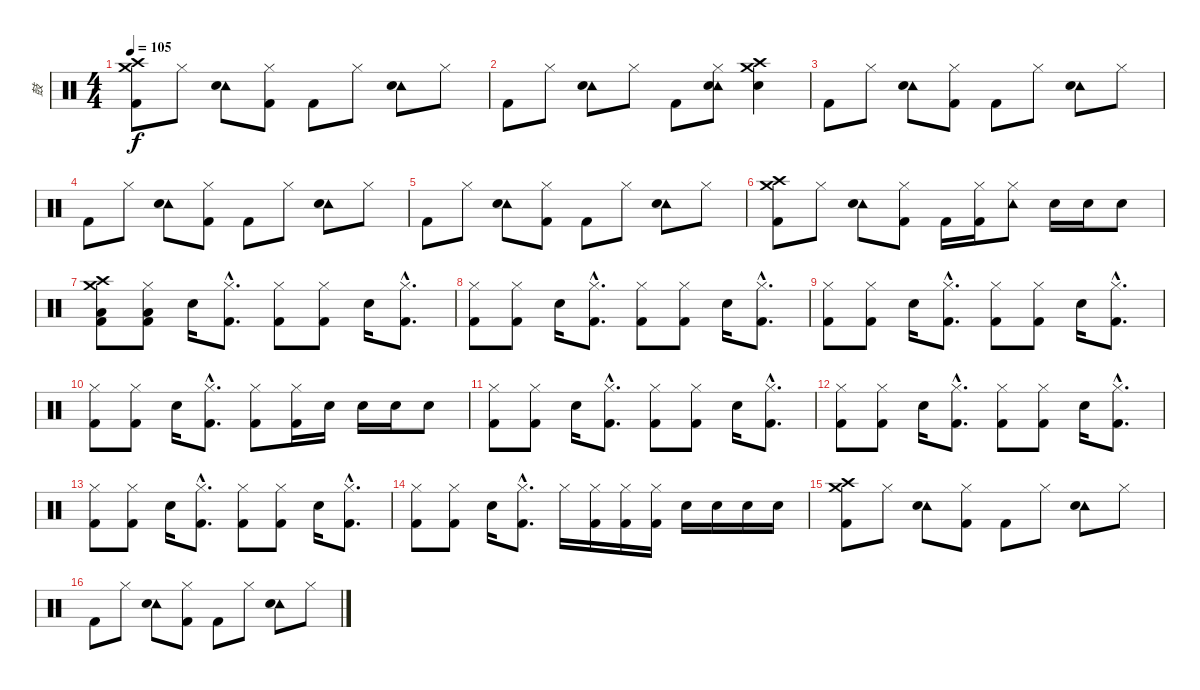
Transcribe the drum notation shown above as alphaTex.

\track ("鼓" "鼓") {instrument percussion}
\staff {score}
\articulation defaults
\ts (4 4)
\tempo 105
\clef neutral
\ks c
("Crash high (hit)" "Crash medium (hit)" "Kick (hit) 2").8{dy f} "Hi-Hat (closed)".8 ("Tambourine (hit)" "Electric Snare (hit)").8 ("Hi-Hat (closed)" "Kick (hit) 2").8 "Kick (hit) 2".8 "Hi-Hat (closed)".8 ("Tambourine (hit)" "Electric Snare (hit)").8 "Hi-Hat (closed)".8 |
"Kick (hit) 2".8 "Hi-Hat (closed)".8 ("Tambourine (hit)" "Electric Snare (hit)").8 "Hi-Hat (closed)".8 "Kick (hit) 2".8 ("Hi-Hat (closed)" "Tambourine (hit)" "Electric Snare (hit)").8 ("Crash medium (hit)" "Crash high (hit)" "Electric Snare (hit)").4 |
"Kick (hit) 2".8 "Hi-Hat (closed)".8 ("Tambourine (hit)" "Electric Snare (hit)").8 ("Hi-Hat (closed)" "Kick (hit) 2").8 "Kick (hit) 2".8 "Hi-Hat (closed)".8 ("Tambourine (hit)" "Electric Snare (hit)").8 "Hi-Hat (closed)".8 |
"Kick (hit) 2".8 "Hi-Hat (closed)".8 ("Tambourine (hit)" "Electric Snare (hit)").8 ("Hi-Hat (closed)" "Kick (hit) 2").8 "Kick (hit) 2".8 "Hi-Hat (closed)".8 ("Tambourine (hit)" "Electric Snare (hit)").8 "Hi-Hat (closed)".8 |
"Kick (hit) 2".8 "Hi-Hat (closed)".8 ("Tambourine (hit)" "Electric Snare (hit)").8 ("Hi-Hat (closed)" "Kick (hit) 2").8 "Kick (hit) 2".8 "Hi-Hat (closed)".8 ("Tambourine (hit)" "Electric Snare (hit)").8 "Hi-Hat (closed)".8 |
("Crash high (hit)" "Crash medium (hit)" "Kick (hit) 2").8 "Hi-Hat (closed)".8 ("Tambourine (hit)" "Electric Snare (hit)").8 ("Hi-Hat (closed)" "Kick (hit) 2").8 "Kick (hit) 2".16 ("Hi-Hat (closed)" "Kick (hit) 2").16 ("Hi-Hat (closed)" "Tambourine (hit)").8 "Electric Snare (hit)".16 "Electric Snare (hit)".16 "Electric Snare (hit)".8 |
("Crash high (hit)" "Crash medium (hit)" "Low Floor Tom (hit)" "Kick (hit) 2").8 ("Hi-Hat (closed)" "Low Floor Tom (hit)" "Kick (hit) 2").8 "Electric Snare (hit)".16 ("Hi-Hat (closed)"{hac} "Kick (hit) 2"{hac}).8{d} ("Hi-Hat (closed)" "Kick (hit) 2").8 ("Hi-Hat (closed)" "Kick (hit) 2").8 "Electric Snare (hit)".16 ("Hi-Hat (closed)"{hac} "Kick (hit) 2"{hac}).8{d} |
("Hi-Hat (closed)" "Kick (hit) 2").8 ("Hi-Hat (closed)" "Kick (hit) 2").8 "Electric Snare (hit)".16 ("Hi-Hat (closed)"{hac} "Kick (hit) 2"{hac}).8{d} ("Hi-Hat (closed)" "Kick (hit) 2").8 ("Hi-Hat (closed)" "Kick (hit) 2").8 "Electric Snare (hit)".16 ("Hi-Hat (closed)"{hac} "Kick (hit) 2"{hac}).8{d} |
("Hi-Hat (closed)" "Kick (hit) 2").8 ("Hi-Hat (closed)" "Kick (hit) 2").8 "Electric Snare (hit)".16 ("Hi-Hat (closed)"{hac} "Kick (hit) 2"{hac}).8{d} ("Hi-Hat (closed)" "Kick (hit) 2").8 ("Hi-Hat (closed)" "Kick (hit) 2").8 "Electric Snare (hit)".16 ("Hi-Hat (closed)"{hac} "Kick (hit) 2"{hac}).8{d} |
("Hi-Hat (closed)" "Kick (hit) 2").8 ("Hi-Hat (closed)" "Kick (hit) 2").8 "Electric Snare (hit)".16 ("Hi-Hat (closed)"{hac} "Kick (hit) 2"{hac}).8{d} ("Hi-Hat (closed)" "Kick (hit) 2").8 ("Hi-Hat (closed)" "Kick (hit) 2").16 "Electric Snare (hit)".16 "Electric Snare (hit)".16 "Electric Snare (hit)".16 "Electric Snare (hit)".8 |
\section ("" "")
("Hi-Hat (closed)" "Kick (hit) 2").8 ("Hi-Hat (closed)" "Kick (hit) 2").8 "Electric Snare (hit)".16 ("Hi-Hat (closed)"{hac} "Kick (hit) 2"{hac}).8{d} ("Hi-Hat (closed)" "Kick (hit) 2").8 ("Hi-Hat (closed)" "Kick (hit) 2").8 "Electric Snare (hit)".16 ("Hi-Hat (closed)"{hac} "Kick (hit) 2"{hac}).8{d} |
("Hi-Hat (closed)" "Kick (hit) 2").8 ("Hi-Hat (closed)" "Kick (hit) 2").8 "Electric Snare (hit)".16 ("Hi-Hat (closed)"{hac} "Kick (hit) 2"{hac}).8{d} ("Hi-Hat (closed)" "Kick (hit) 2").8 ("Hi-Hat (closed)" "Kick (hit) 2").8 "Electric Snare (hit)".16 ("Hi-Hat (closed)"{hac} "Kick (hit) 2"{hac}).8{d} |
("Hi-Hat (closed)" "Kick (hit) 2").8 ("Hi-Hat (closed)" "Kick (hit) 2").8 "Electric Snare (hit)".16 ("Hi-Hat (closed)"{hac} "Kick (hit) 2"{hac}).8{d} ("Hi-Hat (closed)" "Kick (hit) 2").8 ("Hi-Hat (closed)" "Kick (hit) 2").8 "Electric Snare (hit)".16 ("Hi-Hat (closed)"{hac} "Kick (hit) 2"{hac}).8{d} |
("Hi-Hat (closed)" "Kick (hit) 2").8 ("Hi-Hat (closed)" "Kick (hit) 2").8 "Electric Snare (hit)".16 ("Hi-Hat (closed)"{hac} "Kick (hit) 2"{hac}).8{d} "Hi-Hat (closed)".16 ("Hi-Hat (closed)" "Kick (hit) 2").16 ("Hi-Hat (closed)" "Kick (hit) 2").16 ("Hi-Hat (closed)" "Kick (hit) 2").16 "Electric Snare (hit)".16 "Electric Snare (hit)".16 "Electric Snare (hit)".16 "Electric Snare (hit)".16 |
("Crash medium (hit)" "Crash high (hit)" "Kick (hit) 2").8 "Hi-Hat (closed)".8 ("Tambourine (hit)" "Electric Snare (hit)").8 ("Hi-Hat (closed)" "Kick (hit) 2").8 "Kick (hit) 2".8 "Hi-Hat (closed)".8 ("Tambourine (hit)" "Electric Snare (hit)").8 "Hi-Hat (closed)".8 |
"Kick (hit) 2".8 "Hi-Hat (closed)".8 ("Tambourine (hit)" "Electric Snare (hit)").8 ("Hi-Hat (closed)" "Kick (hit) 2").8 "Kick (hit) 2".8 "Hi-Hat (closed)".8 ("Tambourine (hit)" "Electric Snare (hit)").8 "Hi-Hat (closed)".8
